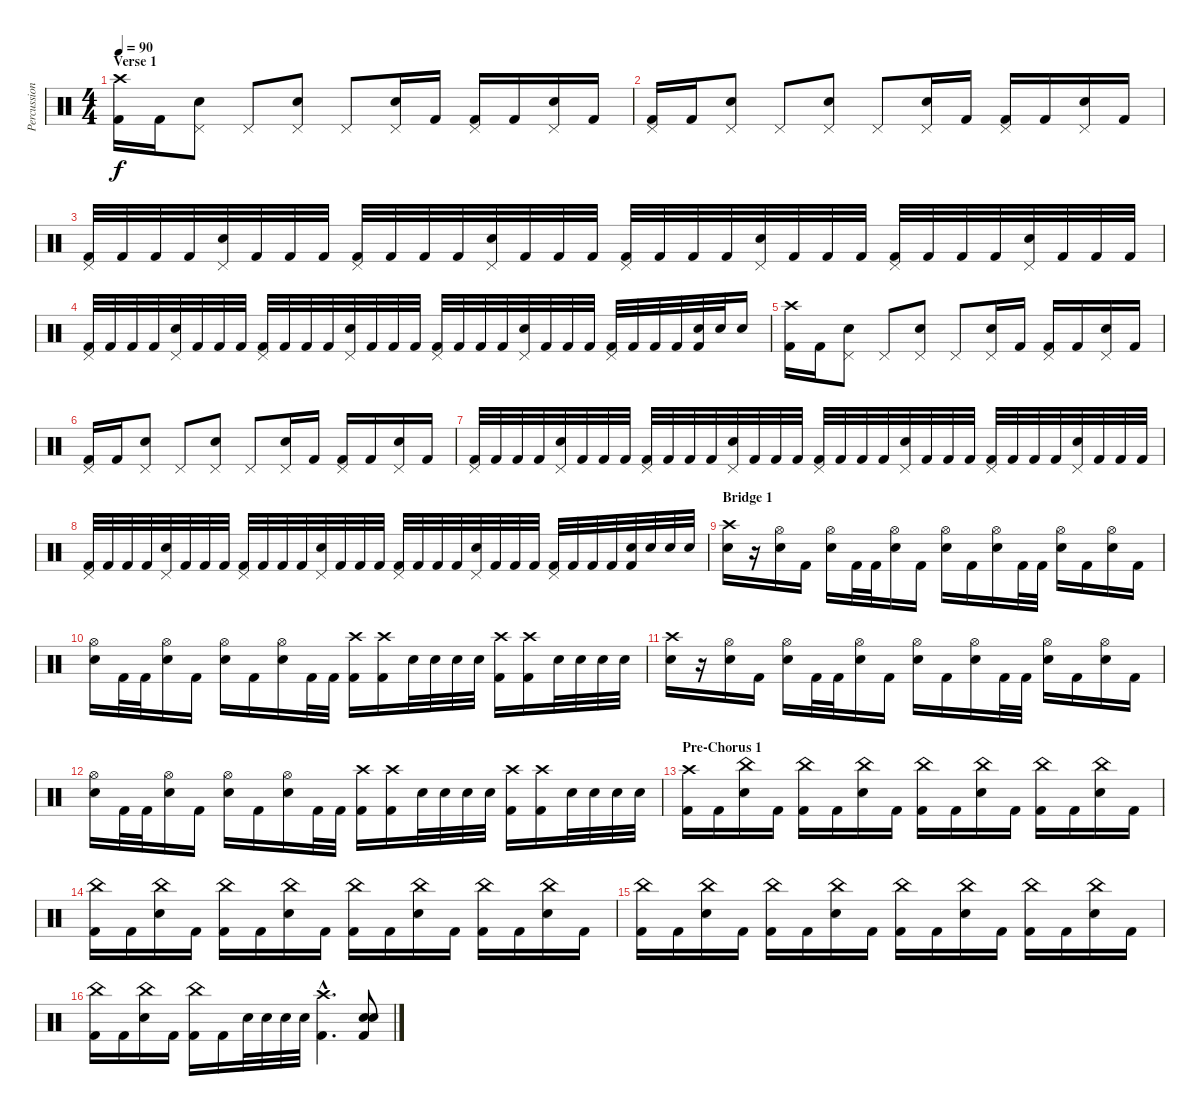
\track ("Percussion" "Percussion") {instrument percussion}
\staff {score}
\articulation defaults
\ts (4 4)
\section ("" "Verse 1")
\tempo 90
\clef neutral
\ks c
("Kick (hit) 2" "Crash high (hit)").16{dy f} "Kick (hit) 2".16 ("Electric Snare (hit)" "Pedal Hi-Hat (hit)").8 "Pedal Hi-Hat (hit)".8 ("Electric Snare (hit)" "Pedal Hi-Hat (hit)").8 "Pedal Hi-Hat (hit)".8 ("Electric Snare (hit)" "Pedal Hi-Hat (hit)").16 "Kick (hit) 2".16 ("Kick (hit) 2" "Pedal Hi-Hat (hit)").16 "Kick (hit) 2".16 ("Electric Snare (hit)" "Pedal Hi-Hat (hit)").16 "Kick (hit) 2".16 |
("Kick (hit) 2" "Pedal Hi-Hat (hit)").16 "Kick (hit) 2".16 ("Electric Snare (hit)" "Pedal Hi-Hat (hit)").8 "Pedal Hi-Hat (hit)".8 ("Electric Snare (hit)" "Pedal Hi-Hat (hit)").8 "Pedal Hi-Hat (hit)".8 ("Electric Snare (hit)" "Pedal Hi-Hat (hit)").16 "Kick (hit) 2".16 ("Kick (hit) 2" "Pedal Hi-Hat (hit)").16 "Kick (hit) 2".16 ("Electric Snare (hit)" "Pedal Hi-Hat (hit)").16 "Kick (hit) 2".16 |
("Kick (hit) 2" "Pedal Hi-Hat (hit)").32 "Kick (hit) 2".32 "Kick (hit) 2".32 "Kick (hit) 2".32 ("Electric Snare (hit)" "Pedal Hi-Hat (hit)").32 "Kick (hit) 2".32 "Kick (hit) 2".32 "Kick (hit) 2".32 ("Kick (hit) 2" "Pedal Hi-Hat (hit)").32 "Kick (hit) 2".32 "Kick (hit) 2".32 "Kick (hit) 2".32 ("Electric Snare (hit)" "Pedal Hi-Hat (hit)").32 "Kick (hit) 2".32 "Kick (hit) 2".32 "Kick (hit) 2".32 ("Kick (hit) 2" "Pedal Hi-Hat (hit)").32 "Kick (hit) 2".32 "Kick (hit) 2".32 "Kick (hit) 2".32 ("Electric Snare (hit)" "Pedal Hi-Hat (hit)").32 "Kick (hit) 2".32 "Kick (hit) 2".32 "Kick (hit) 2".32 ("Kick (hit) 2" "Pedal Hi-Hat (hit)").32 "Kick (hit) 2".32 "Kick (hit) 2".32 "Kick (hit) 2".32 ("Electric Snare (hit)" "Pedal Hi-Hat (hit)").32 "Kick (hit) 2".32 "Kick (hit) 2".32 "Kick (hit) 2".32 |
("Kick (hit) 2" "Pedal Hi-Hat (hit)").32 "Kick (hit) 2".32 "Kick (hit) 2".32 "Kick (hit) 2".32 ("Electric Snare (hit)" "Pedal Hi-Hat (hit)").32 "Kick (hit) 2".32 "Kick (hit) 2".32 "Kick (hit) 2".32 ("Kick (hit) 2" "Pedal Hi-Hat (hit)").32 "Kick (hit) 2".32 "Kick (hit) 2".32 "Kick (hit) 2".32 ("Electric Snare (hit)" "Pedal Hi-Hat (hit)").32 "Kick (hit) 2".32 "Kick (hit) 2".32 "Kick (hit) 2".32 ("Kick (hit) 2" "Pedal Hi-Hat (hit)").32 "Kick (hit) 2".32 "Kick (hit) 2".32 "Kick (hit) 2".32 ("Electric Snare (hit)" "Pedal Hi-Hat (hit)").32 "Kick (hit) 2".32 "Kick (hit) 2".32 "Kick (hit) 2".32 ("Kick (hit) 2" "Pedal Hi-Hat (hit)").32 "Kick (hit) 2".32 "Kick (hit) 2".32 "Kick (hit) 2".32 ("Electric Snare (hit)" "Kick (hit) 2").32 "Electric Snare (hit)".32 "Electric Snare (hit)".16 |
("Kick (hit) 2" "Crash high (hit)").16 "Kick (hit) 2".16 ("Electric Snare (hit)" "Pedal Hi-Hat (hit)").8 "Pedal Hi-Hat (hit)".8 ("Electric Snare (hit)" "Pedal Hi-Hat (hit)").8 "Pedal Hi-Hat (hit)".8 ("Electric Snare (hit)" "Pedal Hi-Hat (hit)").16 "Kick (hit) 2".16 ("Kick (hit) 2" "Pedal Hi-Hat (hit)").16 "Kick (hit) 2".16 ("Electric Snare (hit)" "Pedal Hi-Hat (hit)").16 "Kick (hit) 2".16 |
("Kick (hit) 2" "Pedal Hi-Hat (hit)").16 "Kick (hit) 2".16 ("Electric Snare (hit)" "Pedal Hi-Hat (hit)").8 "Pedal Hi-Hat (hit)".8 ("Electric Snare (hit)" "Pedal Hi-Hat (hit)").8 "Pedal Hi-Hat (hit)".8 ("Electric Snare (hit)" "Pedal Hi-Hat (hit)").16 "Kick (hit) 2".16 ("Kick (hit) 2" "Pedal Hi-Hat (hit)").16 "Kick (hit) 2".16 ("Electric Snare (hit)" "Pedal Hi-Hat (hit)").16 "Kick (hit) 2".16 |
("Kick (hit) 2" "Pedal Hi-Hat (hit)").32 "Kick (hit) 2".32 "Kick (hit) 2".32 "Kick (hit) 2".32 ("Electric Snare (hit)" "Pedal Hi-Hat (hit)").32 "Kick (hit) 2".32 "Kick (hit) 2".32 "Kick (hit) 2".32 ("Kick (hit) 2" "Pedal Hi-Hat (hit)").32 "Kick (hit) 2".32 "Kick (hit) 2".32 "Kick (hit) 2".32 ("Electric Snare (hit)" "Pedal Hi-Hat (hit)").32 "Kick (hit) 2".32 "Kick (hit) 2".32 "Kick (hit) 2".32 ("Kick (hit) 2" "Pedal Hi-Hat (hit)").32 "Kick (hit) 2".32 "Kick (hit) 2".32 "Kick (hit) 2".32 ("Electric Snare (hit)" "Pedal Hi-Hat (hit)").32 "Kick (hit) 2".32 "Kick (hit) 2".32 "Kick (hit) 2".32 ("Kick (hit) 2" "Pedal Hi-Hat (hit)").32 "Kick (hit) 2".32 "Kick (hit) 2".32 "Kick (hit) 2".32 ("Electric Snare (hit)" "Pedal Hi-Hat (hit)").32 "Kick (hit) 2".32 "Kick (hit) 2".32 "Kick (hit) 2".32 |
("Kick (hit) 2" "Pedal Hi-Hat (hit)").32 "Kick (hit) 2".32 "Kick (hit) 2".32 "Kick (hit) 2".32 ("Electric Snare (hit)" "Pedal Hi-Hat (hit)").32 "Kick (hit) 2".32 "Kick (hit) 2".32 "Kick (hit) 2".32 ("Kick (hit) 2" "Pedal Hi-Hat (hit)").32 "Kick (hit) 2".32 "Kick (hit) 2".32 "Kick (hit) 2".32 ("Electric Snare (hit)" "Pedal Hi-Hat (hit)").32 "Kick (hit) 2".32 "Kick (hit) 2".32 "Kick (hit) 2".32 ("Kick (hit) 2" "Pedal Hi-Hat (hit)").32 "Kick (hit) 2".32 "Kick (hit) 2".32 "Kick (hit) 2".32 ("Electric Snare (hit)" "Pedal Hi-Hat (hit)").32 "Kick (hit) 2".32 "Kick (hit) 2".32 "Kick (hit) 2".32 ("Kick (hit) 2" "Pedal Hi-Hat (hit)").32 "Kick (hit) 2".32 "Kick (hit) 2".32 "Kick (hit) 2".32 ("Electric Snare (hit)" "Kick (hit) 2").32 "Electric Snare (hit)".32 "Electric Snare (hit)".32 "Electric Snare (hit)".32 |
\section ("" "Bridge 1")
("Electric Snare (hit)" "Crash high (hit)").16 r.16 ("Electric Snare (hit)" "Hi-Hat (open)").16 "Kick (hit) 2".16 ("Electric Snare (hit)" "Hi-Hat (open)").16 "Kick (hit) 2".32 "Kick (hit) 2".32 ("Electric Snare (hit)" "Hi-Hat (open)").16 "Kick (hit) 2".16 ("Electric Snare (hit)" "Hi-Hat (open)").16 "Kick (hit) 2".16 ("Electric Snare (hit)" "Hi-Hat (open)").16 "Kick (hit) 2".32 "Kick (hit) 2".32 ("Electric Snare (hit)" "Hi-Hat (open)").16 "Kick (hit) 2".16 ("Electric Snare (hit)" "Hi-Hat (open)").16 "Kick (hit) 2".16 |
("Electric Snare (hit)" "Hi-Hat (open)").16 "Kick (hit) 2".32 "Kick (hit) 2".32 ("Electric Snare (hit)" "Hi-Hat (open)").16 "Kick (hit) 2".16 ("Electric Snare (hit)" "Hi-Hat (open)").16 "Kick (hit) 2".16 ("Electric Snare (hit)" "Hi-Hat (open)").16 "Kick (hit) 2".32 "Kick (hit) 2".32 ("Kick (hit) 2" "Crash high (hit)").16 ("Kick (hit) 2" "Crash high (hit)").16 "Electric Snare (hit)".32 "Electric Snare (hit)".32 "Electric Snare (hit)".32 "Electric Snare (hit)".32 ("Kick (hit) 2" "Crash high (hit)").16 ("Kick (hit) 2" "Crash high (hit)").16 "Electric Snare (hit)".32 "Electric Snare (hit)".32 "Electric Snare (hit)".32 "Electric Snare (hit)".32 |
("Electric Snare (hit)" "Crash high (hit)").16 r.16 ("Electric Snare (hit)" "Hi-Hat (open)").16 "Kick (hit) 2".16 ("Electric Snare (hit)" "Hi-Hat (open)").16 "Kick (hit) 2".32 "Kick (hit) 2".32 ("Electric Snare (hit)" "Hi-Hat (open)").16 "Kick (hit) 2".16 ("Electric Snare (hit)" "Hi-Hat (open)").16 "Kick (hit) 2".16 ("Electric Snare (hit)" "Hi-Hat (open)").16 "Kick (hit) 2".32 "Kick (hit) 2".32 ("Electric Snare (hit)" "Hi-Hat (open)").16 "Kick (hit) 2".16 ("Electric Snare (hit)" "Hi-Hat (open)").16 "Kick (hit) 2".16 |
("Electric Snare (hit)" "Hi-Hat (open)").16 "Kick (hit) 2".32 "Kick (hit) 2".32 ("Electric Snare (hit)" "Hi-Hat (open)").16 "Kick (hit) 2".16 ("Electric Snare (hit)" "Hi-Hat (open)").16 "Kick (hit) 2".16 ("Electric Snare (hit)" "Hi-Hat (open)").16 "Kick (hit) 2".32 "Kick (hit) 2".32 ("Kick (hit) 2" "Crash high (hit)").16 ("Kick (hit) 2" "Crash high (hit)").16 "Electric Snare (hit)".32 "Electric Snare (hit)".32 "Electric Snare (hit)".32 "Electric Snare (hit)".32 ("Kick (hit) 2" "Crash high (hit)").16 ("Kick (hit) 2" "Crash high (hit)").16 "Electric Snare (hit)".32 "Electric Snare (hit)".32 "Electric Snare (hit)".32 "Electric Snare (hit)".32 |
\section ("" "Pre-Chorus 1")
("Kick (hit) 2" "Crash high (hit)").16 "Kick (hit) 2".16 ("Electric Snare (hit)" "China (hit)").16 "Kick (hit) 2".16 ("Kick (hit) 2" "China (hit)").16 "Kick (hit) 2".16 ("Electric Snare (hit)" "China (hit)").16 "Kick (hit) 2".16 ("Kick (hit) 2" "China (hit)").16 "Kick (hit) 2".16 ("Electric Snare (hit)" "China (hit)").16 "Kick (hit) 2".16 ("Kick (hit) 2" "China (hit)").16 "Kick (hit) 2".16 ("Electric Snare (hit)" "China (hit)").16 "Kick (hit) 2".16 |
("Kick (hit) 2" "China (hit)").16 "Kick (hit) 2".16 ("Electric Snare (hit)" "China (hit)").16 "Kick (hit) 2".16 ("Kick (hit) 2" "China (hit)").16 "Kick (hit) 2".16 ("Electric Snare (hit)" "China (hit)").16 "Kick (hit) 2".16 ("Kick (hit) 2" "China (hit)").16 "Kick (hit) 2".16 ("Electric Snare (hit)" "China (hit)").16 "Kick (hit) 2".16 ("Kick (hit) 2" "China (hit)").16 "Kick (hit) 2".16 ("Electric Snare (hit)" "China (hit)").16 "Kick (hit) 2".16 |
("Kick (hit) 2" "China (hit)").16 "Kick (hit) 2".16 ("Electric Snare (hit)" "China (hit)").16 "Kick (hit) 2".16 ("Kick (hit) 2" "China (hit)").16 "Kick (hit) 2".16 ("Electric Snare (hit)" "China (hit)").16 "Kick (hit) 2".16 ("Kick (hit) 2" "China (hit)").16 "Kick (hit) 2".16 ("Electric Snare (hit)" "China (hit)").16 "Kick (hit) 2".16 ("Kick (hit) 2" "China (hit)").16 "Kick (hit) 2".16 ("Electric Snare (hit)" "China (hit)").16 "Kick (hit) 2".16 |
("Kick (hit) 2" "China (hit)").16 "Kick (hit) 2".16 ("Electric Snare (hit)" "China (hit)").16 "Kick (hit) 2".16 ("Kick (hit) 2" "China (hit)").16 "Kick (hit) 2".16 "Electric Snare (hit)".32 "Electric Snare (hit)".32 "Electric Snare (hit)".32 "Electric Snare (hit)".32 ("Kick (hit) 2"{hac} "Crash high (hit)"{hac}).4{d} ("Snare (hit) 2" "Electric Snare (hit)" "Kick (hit) 2").8
